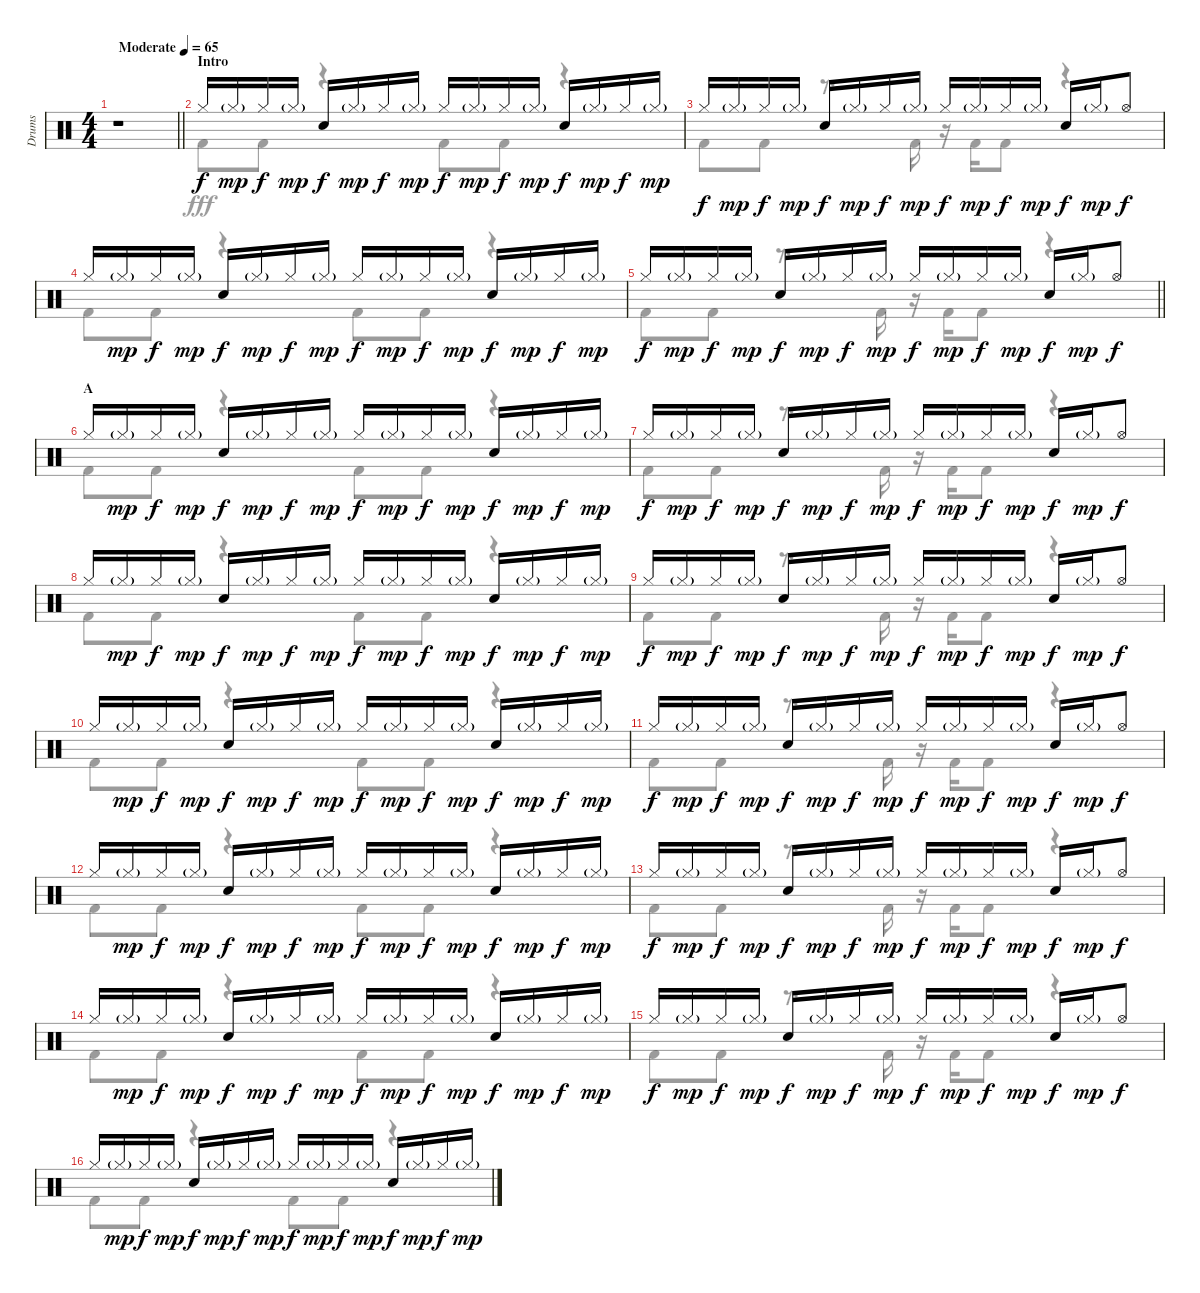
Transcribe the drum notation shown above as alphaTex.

\track ("Drums" "Drums") {instrument percussion}
\staff {score}
\articulation defaults
\voice
\ts (4 4)
\tempo (65 "Moderate")
\clef neutral
\barLineRight lightlight
\ks c
r.1{dy f} |
\section ("" "Intro")
"Hi-Hat (closed)".16 "Hi-Hat (closed)"{g}.16{dy mp} "Hi-Hat (closed)".16{dy f} "Hi-Hat (closed)"{g}.16{dy mp} "Snare (hit) 2".16{dy f} "Hi-Hat (closed)"{g}.16{dy mp} "Hi-Hat (closed)".16{dy f} "Hi-Hat (closed)"{g}.16{dy mp} "Hi-Hat (closed)".16{dy f} "Hi-Hat (closed)"{g}.16{dy mp} "Hi-Hat (closed)".16{dy f} "Hi-Hat (closed)"{g}.16{dy mp} "Snare (hit) 2".16{dy f} "Hi-Hat (closed)"{g}.16{dy mp} "Hi-Hat (closed)".16{dy f} "Hi-Hat (closed)"{g}.16{dy mp} |
"Hi-Hat (closed)".16{dy f} "Hi-Hat (closed)"{g}.16{dy mp} "Hi-Hat (closed)".16{dy f} "Hi-Hat (closed)"{g}.16{dy mp} "Snare (hit) 2".16{dy f} "Hi-Hat (closed)"{g}.16{dy mp} "Hi-Hat (closed)".16{dy f} "Hi-Hat (closed)"{g}.16{dy mp} "Hi-Hat (closed)".16{dy f} "Hi-Hat (closed)"{g}.16{dy mp} "Hi-Hat (closed)".16{dy f} "Hi-Hat (closed)"{g}.16{dy mp} "Snare (hit) 2".16{dy f} "Hi-Hat (closed)"{g}.16{dy mp} "Hi-Hat (open)".8{dy f} |
"Hi-Hat (closed)".16 "Hi-Hat (closed)"{g}.16{dy mp} "Hi-Hat (closed)".16{dy f} "Hi-Hat (closed)"{g}.16{dy mp} "Snare (hit) 2".16{dy f} "Hi-Hat (closed)"{g}.16{dy mp} "Hi-Hat (closed)".16{dy f} "Hi-Hat (closed)"{g}.16{dy mp} "Hi-Hat (closed)".16{dy f} "Hi-Hat (closed)"{g}.16{dy mp} "Hi-Hat (closed)".16{dy f} "Hi-Hat (closed)"{g}.16{dy mp} "Snare (hit) 2".16{dy f} "Hi-Hat (closed)"{g}.16{dy mp} "Hi-Hat (closed)".16{dy f} "Hi-Hat (closed)"{g}.16{dy mp} |
\barLineRight lightlight "Hi-Hat (closed)".16{dy f} "Hi-Hat (closed)"{g}.16{dy mp} "Hi-Hat (closed)".16{dy f} "Hi-Hat (closed)"{g}.16{dy mp} "Snare (hit) 2".16{dy f} "Hi-Hat (closed)"{g}.16{dy mp} "Hi-Hat (closed)".16{dy f} "Hi-Hat (closed)"{g}.16{dy mp} "Hi-Hat (closed)".16{dy f} "Hi-Hat (closed)"{g}.16{dy mp} "Hi-Hat (closed)".16{dy f} "Hi-Hat (closed)"{g}.16{dy mp} "Snare (hit) 2".16{dy f} "Hi-Hat (closed)"{g}.16{dy mp} "Hi-Hat (open)".8{dy f}
|
\section ("" "A")
"Hi-Hat (closed)".16 "Hi-Hat (closed)"{g}.16{dy mp} "Hi-Hat (closed)".16{dy f} "Hi-Hat (closed)"{g}.16{dy mp} "Snare (hit) 2".16{dy f} "Hi-Hat (closed)"{g}.16{dy mp} "Hi-Hat (closed)".16{dy f} "Hi-Hat (closed)"{g}.16{dy mp} "Hi-Hat (closed)".16{dy f} "Hi-Hat (closed)"{g}.16{dy mp} "Hi-Hat (closed)".16{dy f} "Hi-Hat (closed)"{g}.16{dy mp} "Snare (hit) 2".16{dy f} "Hi-Hat (closed)"{g}.16{dy mp} "Hi-Hat (closed)".16{dy f} "Hi-Hat (closed)"{g}.16{dy mp} |
"Hi-Hat (closed)".16{dy f} "Hi-Hat (closed)"{g}.16{dy mp} "Hi-Hat (closed)".16{dy f} "Hi-Hat (closed)"{g}.16{dy mp} "Snare (hit) 2".16{dy f} "Hi-Hat (closed)"{g}.16{dy mp} "Hi-Hat (closed)".16{dy f} "Hi-Hat (closed)"{g}.16{dy mp} "Hi-Hat (closed)".16{dy f} "Hi-Hat (closed)"{g}.16{dy mp} "Hi-Hat (closed)".16{dy f} "Hi-Hat (closed)"{g}.16{dy mp} "Snare (hit) 2".16{dy f} "Hi-Hat (closed)"{g}.16{dy mp} "Hi-Hat (open)".8{dy f} |
"Hi-Hat (closed)".16 "Hi-Hat (closed)"{g}.16{dy mp} "Hi-Hat (closed)".16{dy f} "Hi-Hat (closed)"{g}.16{dy mp} "Snare (hit) 2".16{dy f} "Hi-Hat (closed)"{g}.16{dy mp} "Hi-Hat (closed)".16{dy f} "Hi-Hat (closed)"{g}.16{dy mp} "Hi-Hat (closed)".16{dy f} "Hi-Hat (closed)"{g}.16{dy mp} "Hi-Hat (closed)".16{dy f} "Hi-Hat (closed)"{g}.16{dy mp} "Snare (hit) 2".16{dy f} "Hi-Hat (closed)"{g}.16{dy mp} "Hi-Hat (closed)".16{dy f} "Hi-Hat (closed)"{g}.16{dy mp} |
"Hi-Hat (closed)".16{dy f} "Hi-Hat (closed)"{g}.16{dy mp} "Hi-Hat (closed)".16{dy f} "Hi-Hat (closed)"{g}.16{dy mp} "Snare (hit) 2".16{dy f} "Hi-Hat (closed)"{g}.16{dy mp} "Hi-Hat (closed)".16{dy f} "Hi-Hat (closed)"{g}.16{dy mp} "Hi-Hat (closed)".16{dy f} "Hi-Hat (closed)"{g}.16{dy mp} "Hi-Hat (closed)".16{dy f} "Hi-Hat (closed)"{g}.16{dy mp} "Snare (hit) 2".16{dy f} "Hi-Hat (closed)"{g}.16{dy mp} "Hi-Hat (open)".8{dy f} |
"Hi-Hat (closed)".16 "Hi-Hat (closed)"{g}.16{dy mp} "Hi-Hat (closed)".16{dy f} "Hi-Hat (closed)"{g}.16{dy mp} "Snare (hit) 2".16{dy f} "Hi-Hat (closed)"{g}.16{dy mp} "Hi-Hat (closed)".16{dy f} "Hi-Hat (closed)"{g}.16{dy mp} "Hi-Hat (closed)".16{dy f} "Hi-Hat (closed)"{g}.16{dy mp} "Hi-Hat (closed)".16{dy f} "Hi-Hat (closed)"{g}.16{dy mp} "Snare (hit) 2".16{dy f} "Hi-Hat (closed)"{g}.16{dy mp} "Hi-Hat (closed)".16{dy f} "Hi-Hat (closed)"{g}.16{dy mp} |
"Hi-Hat (closed)".16{dy f} "Hi-Hat (closed)"{g}.16{dy mp} "Hi-Hat (closed)".16{dy f} "Hi-Hat (closed)"{g}.16{dy mp} "Snare (hit) 2".16{dy f} "Hi-Hat (closed)"{g}.16{dy mp} "Hi-Hat (closed)".16{dy f} "Hi-Hat (closed)"{g}.16{dy mp} "Hi-Hat (closed)".16{dy f} "Hi-Hat (closed)"{g}.16{dy mp} "Hi-Hat (closed)".16{dy f} "Hi-Hat (closed)"{g}.16{dy mp} "Snare (hit) 2".16{dy f} "Hi-Hat (closed)"{g}.16{dy mp} "Hi-Hat (open)".8{dy f} |
"Hi-Hat (closed)".16 "Hi-Hat (closed)"{g}.16{dy mp} "Hi-Hat (closed)".16{dy f} "Hi-Hat (closed)"{g}.16{dy mp} "Snare (hit) 2".16{dy f} "Hi-Hat (closed)"{g}.16{dy mp} "Hi-Hat (closed)".16{dy f} "Hi-Hat (closed)"{g}.16{dy mp} "Hi-Hat (closed)".16{dy f} "Hi-Hat (closed)"{g}.16{dy mp} "Hi-Hat (closed)".16{dy f} "Hi-Hat (closed)"{g}.16{dy mp} "Snare (hit) 2".16{dy f} "Hi-Hat (closed)"{g}.16{dy mp} "Hi-Hat (closed)".16{dy f} "Hi-Hat (closed)"{g}.16{dy mp} |
"Hi-Hat (closed)".16{dy f} "Hi-Hat (closed)"{g}.16{dy mp} "Hi-Hat (closed)".16{dy f} "Hi-Hat (closed)"{g}.16{dy mp} "Snare (hit) 2".16{dy f} "Hi-Hat (closed)"{g}.16{dy mp} "Hi-Hat (closed)".16{dy f} "Hi-Hat (closed)"{g}.16{dy mp} "Hi-Hat (closed)".16{dy f} "Hi-Hat (closed)"{g}.16{dy mp} "Hi-Hat (closed)".16{dy f} "Hi-Hat (closed)"{g}.16{dy mp} "Snare (hit) 2".16{dy f} "Hi-Hat (closed)"{g}.16{dy mp} "Hi-Hat (open)".8{dy f} |
"Hi-Hat (closed)".16 "Hi-Hat (closed)"{g}.16{dy mp} "Hi-Hat (closed)".16{dy f} "Hi-Hat (closed)"{g}.16{dy mp} "Snare (hit) 2".16{dy f} "Hi-Hat (closed)"{g}.16{dy mp} "Hi-Hat (closed)".16{dy f} "Hi-Hat (closed)"{g}.16{dy mp} "Hi-Hat (closed)".16{dy f} "Hi-Hat (closed)"{g}.16{dy mp} "Hi-Hat (closed)".16{dy f} "Hi-Hat (closed)"{g}.16{dy mp} "Snare (hit) 2".16{dy f} "Hi-Hat (closed)"{g}.16{dy mp} "Hi-Hat (closed)".16{dy f} "Hi-Hat (closed)"{g}.16{dy mp} |
"Hi-Hat (closed)".16{dy f} "Hi-Hat (closed)"{g}.16{dy mp} "Hi-Hat (closed)".16{dy f} "Hi-Hat (closed)"{g}.16{dy mp} "Snare (hit) 2".16{dy f} "Hi-Hat (closed)"{g}.16{dy mp} "Hi-Hat (closed)".16{dy f} "Hi-Hat (closed)"{g}.16{dy mp} "Hi-Hat (closed)".16{dy f} "Hi-Hat (closed)"{g}.16{dy mp} "Hi-Hat (closed)".16{dy f} "Hi-Hat (closed)"{g}.16{dy mp} "Snare (hit) 2".16{dy f} "Hi-Hat (closed)"{g}.16{dy mp} "Hi-Hat (open)".8{dy f} |
"Hi-Hat (closed)".16 "Hi-Hat (closed)"{g}.16{dy mp} "Hi-Hat (closed)".16{dy f} "Hi-Hat (closed)"{g}.16{dy mp} "Snare (hit) 2".16{dy f} "Hi-Hat (closed)"{g}.16{dy mp} "Hi-Hat (closed)".16{dy f} "Hi-Hat (closed)"{g}.16{dy mp} "Hi-Hat (closed)".16{dy f} "Hi-Hat (closed)"{g}.16{dy mp} "Hi-Hat (closed)".16{dy f} "Hi-Hat (closed)"{g}.16{dy mp} "Snare (hit) 2".16{dy f} "Hi-Hat (closed)"{g}.16{dy mp} "Hi-Hat (closed)".16{dy f} "Hi-Hat (closed)"{g}.16{dy mp}
\voice
\clef neutral
\ottava regular
\simile none
\barLineRight lightlight
\ks c
r.1{dy fff} |
"Kick (hit) 2".8 "Kick (hit) 2".8 r.4 "Kick (hit) 2".8 "Kick (hit) 2".8 r.4 |
"Kick (hit) 2".8 "Kick (hit) 2".8 r.8{d} "Kick (hit) 2".16 r.16 "Kick (hit) 2".16 "Kick (hit) 2".8 r.4 |
"Kick (hit) 2".8 "Kick (hit) 2".8 r.4 "Kick (hit) 2".8 "Kick (hit) 2".8 r.4 |
\barLineRight lightlight "Kick (hit) 2".8 "Kick (hit) 2".8
r.8{d} "Kick (hit) 2".16 r.16 "Kick (hit) 2".16 "Kick (hit) 2".8 r.4 |
"Kick (hit) 2".8 "Kick (hit) 2".8 r.4 "Kick (hit) 2".8 "Kick (hit) 2".8 r.4 |
"Kick (hit) 2".8 "Kick (hit) 2".8 r.8{d} "Kick (hit) 2".16 r.16 "Kick (hit) 2".16 "Kick (hit) 2".8 r.4 |
"Kick (hit) 2".8 "Kick (hit) 2".8 r.4 "Kick (hit) 2".8 "Kick (hit) 2".8 r.4 |
"Kick (hit) 2".8 "Kick (hit) 2".8 r.8{d} "Kick (hit) 2".16 r.16 "Kick (hit) 2".16 "Kick (hit) 2".8 r.4 |
"Kick (hit) 2".8 "Kick (hit) 2".8 r.4 "Kick (hit) 2".8 "Kick (hit) 2".8 r.4 |
"Kick (hit) 2".8 "Kick (hit) 2".8 r.8{d} "Kick (hit) 2".16 r.16 "Kick (hit) 2".16 "Kick (hit) 2".8 r.4 |
"Kick (hit) 2".8 "Kick (hit) 2".8 r.4 "Kick (hit) 2".8 "Kick (hit) 2".8 r.4 |
"Kick (hit) 2".8 "Kick (hit) 2".8 r.8{d} "Kick (hit) 2".16 r.16 "Kick (hit) 2".16 "Kick (hit) 2".8 r.4 |
"Kick (hit) 2".8 "Kick (hit) 2".8 r.4 "Kick (hit) 2".8 "Kick (hit) 2".8 r.4 |
"Kick (hit) 2".8 "Kick (hit) 2".8 r.8{d} "Kick (hit) 2".16 r.16 "Kick (hit) 2".16 "Kick (hit) 2".8 r.4 |
"Kick (hit) 2".8 "Kick (hit) 2".8 r.4 "Kick (hit) 2".8 "Kick (hit) 2".8 r.4
